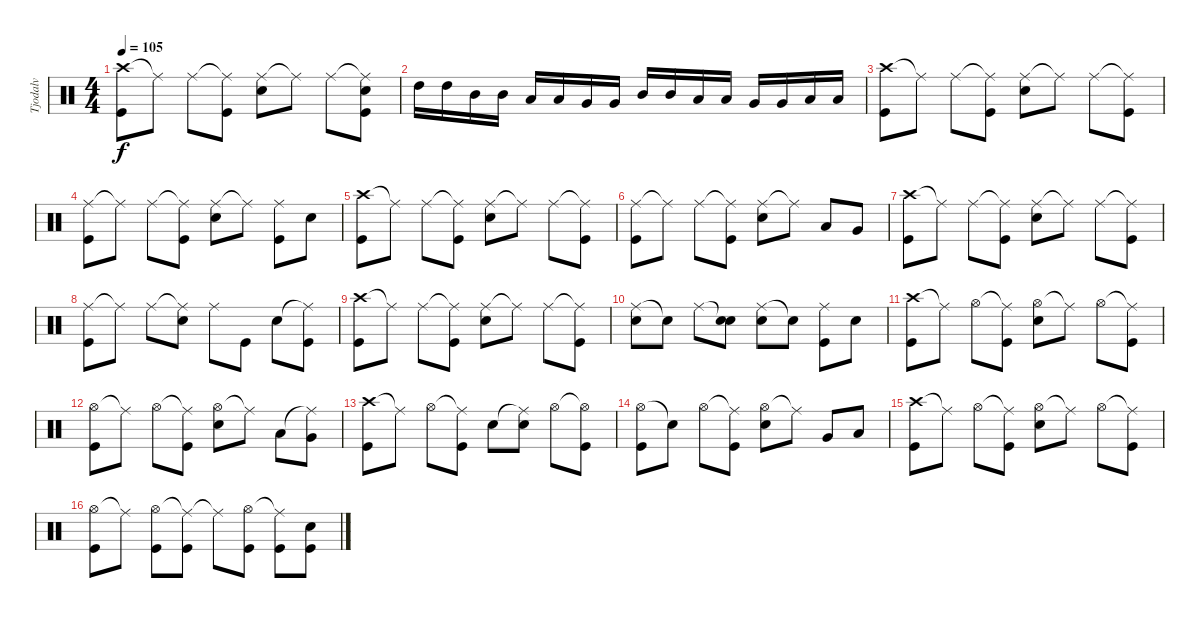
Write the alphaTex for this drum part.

\track ("Tjodalv" "Tjodalv") {instrument percussion}
\staff {score}
\articulation defaults
\ts (4 4)
\tempo 105
\clef neutral
\ks c
("Crash high (hit)" "Kick (hit)").8{dy f} "Ride (middle)"{t}.8 "Ride (middle)".8 ("Ride (middle)"{t} "Kick (hit)").8 ("Ride (middle)" "Snare (hit) 2").8 "Ride (middle)"{t}.8 "Ride (middle)".8 ("Ride (middle)"{t} "Snare (hit) 2" "Kick (hit)").8 |
"High Tom (hit)".16 "High Tom (hit)".16 "Mid Tom (hit)".16 "Mid Tom (hit)".16 "Low Tom (hit)".16 "Low Tom (hit)".16 "Very Low Tom (hit)".16 "Very Low Tom (hit)".16 "Mid Tom (hit)".16 "Mid Tom (hit)".16 "Low Tom (hit)".16 "Low Tom (hit)".16 "Very Low Tom (hit)".16 "Very Low Tom (hit)".16 "Low Floor Tom (hit)".16 "Low Floor Tom (hit)".16 |
("Crash high (hit)" "Kick (hit)").8 "Ride (middle)"{t}.8 "Ride (middle)".8 ("Ride (middle)"{t} "Kick (hit)").8 ("Ride (middle)" "Snare (hit) 2").8 "Ride (middle)"{t}.8 "Ride (middle)".8 ("Ride (middle)"{t} "Kick (hit)").8 |
("Ride (middle)" "Kick (hit)").8 "Ride (middle)"{t}.8 "Ride (middle)".8 ("Ride (middle)"{t} "Kick (hit)").8 ("Ride (middle)" "Snare (hit) 2").8 "Ride (middle)"{t}.8 ("Ride (middle)" "Kick (hit)").8 "Snare (hit) 2".8 |
("Crash high (hit)" "Kick (hit)").8 "Ride (middle)"{t}.8 "Ride (middle)".8 ("Ride (middle)"{t} "Kick (hit)").8 ("Ride (middle)" "Snare (hit) 2").8 "Ride (middle)"{t}.8 "Ride (middle)".8 ("Ride (middle)"{t} "Kick (hit)").8 |
("Ride (middle)" "Kick (hit)").8 "Ride (middle)"{t}.8 "Ride (middle)".8 ("Ride (middle)"{t} "Kick (hit)").8 ("Ride (middle)" "Snare (hit) 2").8 "Ride (middle)"{t}.8 "Low Tom (hit)".8 "Very Low Tom (hit)".8 |
("Crash high (hit)" "Kick (hit)").8 "Ride (middle)"{t}.8 "Ride (middle)".8 ("Ride (middle)"{t} "Kick (hit)").8 ("Ride (middle)" "Snare (hit) 2").8 "Ride (middle)"{t}.8 "Ride (middle)".8 ("Ride (middle)"{t} "Kick (hit)").8 |
("Ride (middle)" "Kick (hit)").8 "Ride (middle)"{t}.8 "Ride (middle)".8 ("Ride (middle)"{t} "Snare (hit) 2").8 "Ride (middle)".8 "Kick (hit)".8 "Snare (hit) 2".8 ("Ride (middle)"{t} "Kick (hit)").8 |
("Crash high (hit)" "Kick (hit)").8 "Ride (middle)"{t}.8 "Ride (middle)".8 ("Ride (middle)"{t} "Kick (hit)").8 ("Ride (middle)" "Snare (hit) 2").8 "Ride (middle)"{t}.8 "Ride (middle)".8 ("Ride (middle)"{t} "Kick (hit)").8 |
("Ride (middle)" "Snare (hit) 2").8 "Snare (hit)"{t}.8 "Ride (middle)".8 ("Snare (hit)"{t} "Snare (hit) 2").8 ("Ride (middle)" "Snare (hit) 2").8 "Snare (hit)"{t}.8 ("Ride (middle)" "Kick (hit)").8 "Snare (hit) 2".8 |
("Crash high (hit)" "Kick (hit)").8 "Ride (middle)"{t}.8 "Hi-Hat (open)".8 ("Ride (middle)"{t} "Kick (hit)").8 ("Hi-Hat (open)" "Snare (hit) 2").8 "Ride (middle)"{t}.8 "Hi-Hat (open)".8 ("Ride (middle)"{t} "Kick (hit)").8 |
("Hi-Hat (open)" "Kick (hit)").8 "Ride (middle)"{t}.8 "Hi-Hat (open)".8 ("Ride (middle)"{t} "Kick (hit)").8 ("Hi-Hat (open)" "Snare (hit) 2").8 "Ride (middle)"{t}.8 "Low Tom (hit)".8 ("Ride (middle)"{t} "Very Low Tom (hit)").8 |
("Crash high (hit)" "Kick (hit)").8 "Ride (middle)"{t}.8 "Hi-Hat (open)".8 ("Ride (middle)"{t} "Kick (hit)").8 "Snare (hit) 2".8 ("Ride (middle)"{t} "Snare (hit) 2").8 "Hi-Hat (open)".8 ("Hi-Hat (open)"{t} "Kick (hit)").8 |
("Hi-Hat (open)" "Kick (hit)").8 "Snare (hit)"{t}.8 "Hi-Hat (open)".8 ("Ride (middle)"{t} "Kick (hit)").8 ("Hi-Hat (open)" "Snare (hit) 2").8 "Ride (middle)"{t}.8 "Very Low Tom (hit)".8 "Low Floor Tom (hit)".8 |
("Crash high (hit)" "Kick (hit)").8 "Ride (middle)"{t}.8 "Hi-Hat (open)".8 ("Ride (middle)"{t} "Kick (hit)").8 ("Hi-Hat (open)" "Snare (hit) 2").8 "Ride (middle)"{t}.8 "Hi-Hat (open)".8 ("Ride (middle)"{t} "Kick (hit)").8 |
("Hi-Hat (open)" "Kick (hit)").8 "Ride (middle)"{t}.8 ("Hi-Hat (open)" "Kick (hit)").8 ("Ride (middle)"{t} "Kick (hit)").8 "Ride (middle)"{t}.8 ("Hi-Hat (open)" "Kick (hit)").8 ("Ride (middle)"{t} "Kick (hit)").8 ("Snare (hit) 2" "Kick (hit)").8
